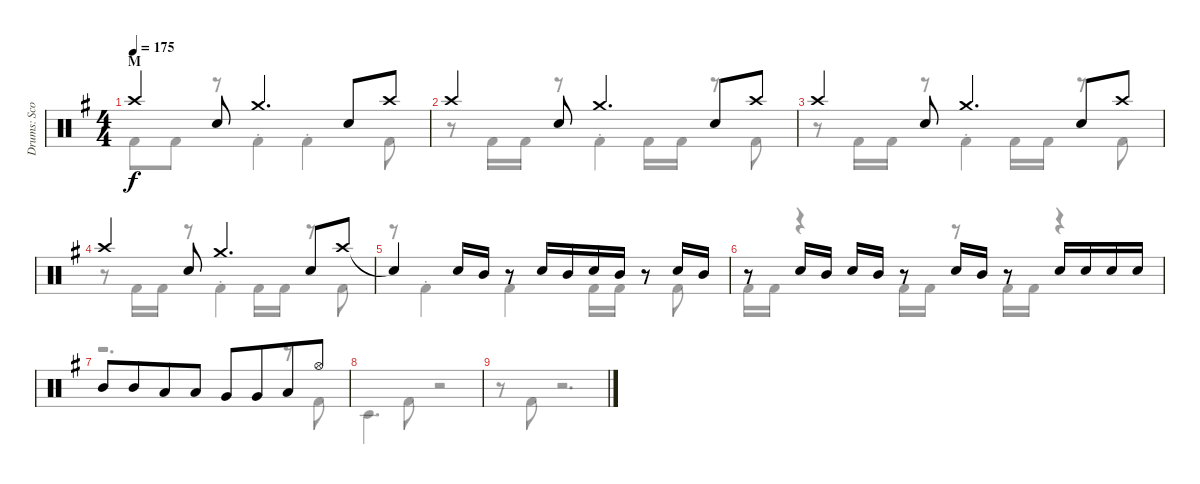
\track ("Drums: Scott" "Drums: Sco") {instrument percussion}
\staff {score}
\articulation defaults
\voice
\ts (4 4)
\section ("" "M")
\tempo 175
\clef neutral
\ks g "Crash high (hit)".4{dy f} "Snare (hit) 2".8 "Crash medium (hit)".4{d} "Snare (hit) 2".8 "Crash high (hit)".8
|
"Crash high (hit)".4 "Snare (hit) 2".8 "Crash medium (hit)".4{d} "Snare (hit) 2".8 "Crash high (hit)".8 |
"Crash high (hit)".4 "Snare (hit) 2".8 "Crash medium (hit)".4{d} "Snare (hit) 2".8 "Crash high (hit)".8 |
"Crash high (hit)".4 "Snare (hit) 2".8 "Crash medium (hit)".4{d} "Snare (hit) 2".8 "Crash high (hit)".8 |
"Snare (hit)"{t}.4 "Snare (hit) 2".16 "Mid Tom (hit)".16 r.8 "Snare (hit) 2".16 "Mid Tom (hit)".16 "Snare (hit) 2".16 "Mid Tom (hit)".16 r.8 "Snare (hit) 2".16 "Mid Tom (hit)".16 |
r.8 "Snare (hit) 2".16 "Mid Tom (hit)".16 "Snare (hit) 2".16 "Mid Tom (hit)".16 r.8 "Snare (hit) 2".16 "Mid Tom (hit)".16 r.8 "Snare (hit) 2".16 "Snare (hit) 2".16 "Snare (hit) 2".16 "Snare (hit) 2".16 |
"Mid Tom (hit)".8 "Mid Tom (hit)".8{beam merge} "Low Tom (hit)".8 "Low Tom (hit)".8 "Very Low Tom (hit)".8 "Very Low Tom (hit)".8{beam merge} "Low Floor Tom (hit)".8 "Hi-Hat (open)".8 |
|
\voice
\clef neutral
\ottava regular
\simile none
\ks g "Kick (hit) 2".8{dy f} "Kick (hit) 2".8
r.8 "Kick (hit) 2"{st}.4{beam merge} "Kick (hit) 2"{st}.4 "Kick (hit) 2".8 |
r.8 "Kick (hit) 2".16 "Kick (hit) 2".16 r.8{beam merge} "Kick (hit) 2"{st}.4 "Kick (hit) 2".16 "Kick (hit) 2".16 r.8 "Kick (hit) 2".8 |
r.8 "Kick (hit) 2".16 "Kick (hit) 2".16 r.8{beam merge} "Kick (hit) 2"{st}.4 "Kick (hit) 2".16 "Kick (hit) 2".16 r.8 "Kick (hit) 2".8 |
r.8 "Kick (hit) 2".16 "Kick (hit) 2".16 r.8{beam merge} "Kick (hit) 2"{st}.4 "Kick (hit) 2".16 "Kick (hit) 2".16 r.8 "Kick (hit) 2".8 |
r.8 "Kick (hit) 2"{st}.4{beam merge} "Kick (hit) 2"{st}.4 "Kick (hit) 2".16 "Kick (hit) 2".16 r.8 "Kick (hit) 2".8 |
"Kick (hit) 2".16 "Kick (hit) 2".16 r.4 "Kick (hit) 2".16 "Kick (hit) 2".16 r.8 "Kick (hit) 2".16 "Kick (hit) 2".16 r.4 |
r.2{d} r.8 "Kick (hit) 2".8 |
"Timbale low (hit)".4{d} "Kick (hit) 2".8 r.2 |
r.8 "Kick (hit) 2".8 r.2{d}
